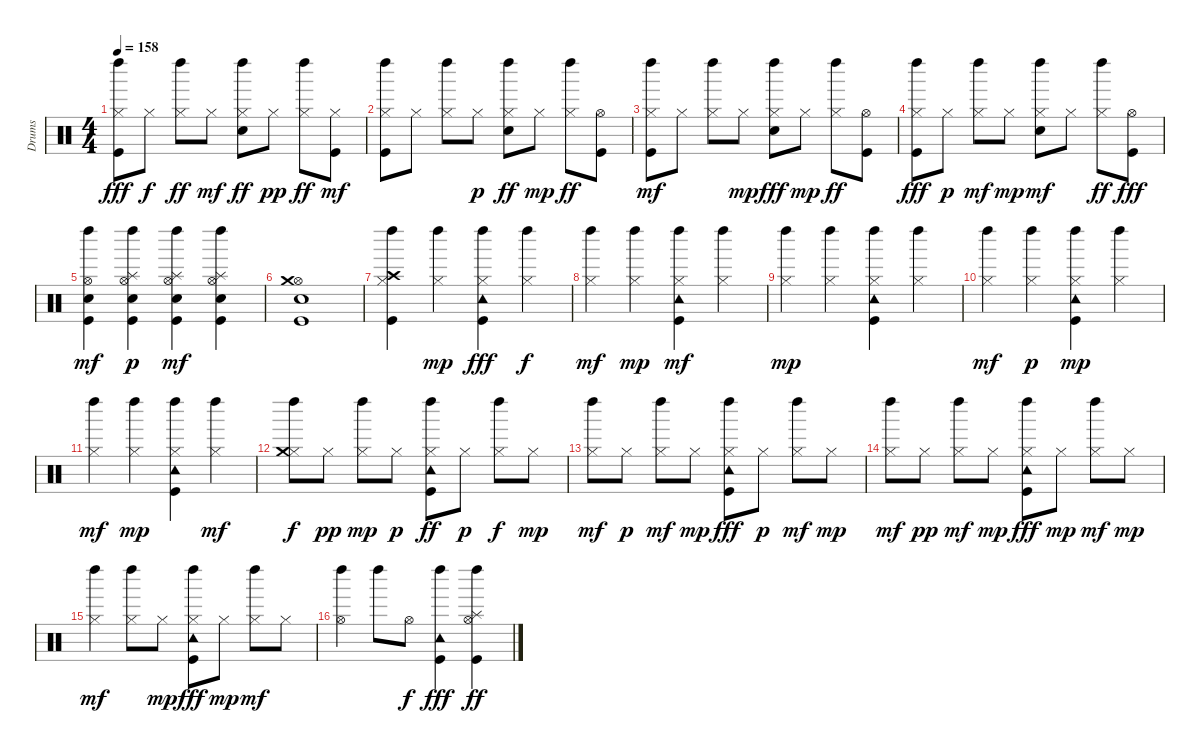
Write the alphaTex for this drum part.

\track ("Drums" "Drums") {instrument percussion}
\staff {score}
\articulation defaults
\ts (4 4)
\tempo 158
\clef neutral
\ks c
("Hi-Hat (closed)" "Left Maraca (hit)" "Kick (hit)").8{dy fff} "Hi-Hat (closed)".8{dy f} ("Left Maraca (hit)" "Hi-Hat (closed)").8{dy ff} "Hi-Hat (closed)".8{dy mf} ("Electric Snare (hit)" "Left Maraca (hit)" "Hi-Hat (closed)").8{dy ff} "Hi-Hat (closed)".8{dy pp} ("Left Maraca (hit)" "Hi-Hat (closed)").8{dy ff} ("Kick (hit)" "Hi-Hat (closed)").8{dy mf} |
("Kick (hit)" "Hi-Hat (closed)" "Left Maraca (hit)").8 "Hi-Hat (closed)".8 ("Hi-Hat (closed)" "Left Maraca (hit)").8 "Hi-Hat (closed)".8{dy p} ("Electric Snare (hit)" "Hi-Hat (closed)" "Left Maraca (hit)").8{dy ff} "Hi-Hat (closed)".8{dy mp} ("Left Maraca (hit)" "Hi-Hat (closed)").8{dy ff} ("Hi-Hat (open)" "Kick (hit)").8 |
("Hi-Hat (closed)" "Kick (hit)" "Left Maraca (hit)").8{dy mf} "Hi-Hat (closed)".8 ("Hi-Hat (closed)" "Left Maraca (hit)").8 "Hi-Hat (closed)".8{dy mp} ("Hi-Hat (closed)" "Left Maraca (hit)" "Electric Snare (hit)").8{dy fff} "Hi-Hat (closed)".8{dy mp} ("Left Maraca (hit)" "Hi-Hat (closed)").8{dy ff} ("Hi-Hat (open)" "Kick (hit)").8 |
("Hi-Hat (closed)" "Left Maraca (hit)" "Kick (hit)").8{dy fff} "Hi-Hat (closed)".8{dy p} ("Hi-Hat (closed)" "Left Maraca (hit)").8{dy mf} "Hi-Hat (closed)".8{dy mp} ("Hi-Hat (closed)" "Electric Snare (hit)" "Left Maraca (hit)").8{dy mf} "Hi-Hat (closed)".8 ("Hi-Hat (closed)" "Left Maraca (hit)").8{dy ff} ("Hi-Hat (open)" "Kick (hit)").8{dy fff} |
("Electric Snare (hit)" "Hi-Hat (open)" "Kick (hit)" "Left Maraca (hit)").4{dy mf} ("Hi-Hat (open)" "Left Maraca (hit)" "Kick (hit)" "Electric Snare (hit)" "Splash (hit)").4{dy p} ("Electric Snare (hit)" "Kick (hit)" "Hi-Hat (open)" "Splash (hit)" "Left Maraca (hit)").4{dy mf} ("Electric Snare (hit)" "Kick (hit)" "Splash (hit)" "Hi-Hat (open)" "Left Maraca (hit)").4 |
("Electric Snare (hit)" "Kick (hit)" "Hi-Hat (open)" "Crash medium (hit)").1 |
("Left Maraca (hit)" "Kick (hit)" "Hi-Hat (closed)" "Crash high (hit)").4 ("Hi-Hat (closed)" "Left Maraca (hit)").4{dy mp} ("Kick (hit)" "Hi-Hat (closed)" "Tambourine (hit)" "Left Maraca (hit)").4{dy fff} ("Left Maraca (hit)" "Hi-Hat (closed)").4{dy f} |
("Hi-Hat (closed)" "Left Maraca (hit)").4{dy mf} ("Hi-Hat (closed)" "Left Maraca (hit)").4{dy mp} ("Kick (hit)" "Tambourine (hit)" "Hi-Hat (closed)" "Left Maraca (hit)").4{dy mf} ("Hi-Hat (closed)" "Left Maraca (hit)").4 |
("Hi-Hat (closed)" "Left Maraca (hit)").4{dy mp} ("Left Maraca (hit)" "Hi-Hat (closed)").4 ("Kick (hit)" "Tambourine (hit)" "Hi-Hat (closed)" "Left Maraca (hit)").4 ("Hi-Hat (closed)" "Left Maraca (hit)").4 |
("Hi-Hat (closed)" "Left Maraca (hit)").4{dy mf} ("Hi-Hat (closed)" "Left Maraca (hit)").4{dy p} ("Tambourine (hit)" "Kick (hit)" "Hi-Hat (closed)" "Left Maraca (hit)").4{dy mp} ("Hi-Hat (closed)" "Left Maraca (hit)").4 |
("Hi-Hat (closed)" "Left Maraca (hit)").4{dy mf} ("Hi-Hat (closed)" "Left Maraca (hit)").4{dy mp} ("Kick (hit)" "Hi-Hat (closed)" "Tambourine (hit)" "Left Maraca (hit)").4 ("Hi-Hat (closed)" "Left Maraca (hit)").4{dy mf} |
("Hi-Hat (closed)" "Crash medium (hit)" "Left Maraca (hit)").8{dy f} "Hi-Hat (closed)".8{dy pp} ("Left Maraca (hit)" "Hi-Hat (closed)").8{dy mp} "Hi-Hat (closed)".8{dy p} ("Left Maraca (hit)" "Tambourine (hit)" "Kick (hit)" "Hi-Hat (closed)").8{dy ff} "Hi-Hat (closed)".8{dy p} ("Hi-Hat (closed)" "Left Maraca (hit)").8{dy f} "Hi-Hat (closed)".8{dy mp} |
("Left Maraca (hit)" "Hi-Hat (closed)").8{dy mf} "Hi-Hat (closed)".8{dy p} ("Hi-Hat (closed)" "Left Maraca (hit)").8{dy mf} "Hi-Hat (closed)".8{dy mp} ("Kick (hit)" "Left Maraca (hit)" "Tambourine (hit)" "Hi-Hat (closed)").8{dy fff} "Hi-Hat (closed)".8{dy p} ("Left Maraca (hit)" "Hi-Hat (closed)").8{dy mf} "Hi-Hat (closed)".8{dy mp} |
("Left Maraca (hit)" "Hi-Hat (closed)").8{dy mf} "Hi-Hat (closed)".8{dy pp} ("Left Maraca (hit)" "Hi-Hat (closed)").8{dy mf} "Hi-Hat (closed)".8{dy mp} ("Kick (hit)" "Left Maraca (hit)" "Hi-Hat (closed)" "Tambourine (hit)").8{dy fff} "Hi-Hat (closed)".8{dy mp} ("Hi-Hat (closed)" "Left Maraca (hit)").8{dy mf} "Hi-Hat (closed)".8{dy mp} |
("Left Maraca (hit)" "Hi-Hat (closed)").4{dy mf} ("Left Maraca (hit)" "Hi-Hat (closed)").8 "Hi-Hat (closed)".8{dy mp} ("Kick (hit)" "Left Maraca (hit)" "Hi-Hat (closed)" "Tambourine (hit)").8{dy fff} "Hi-Hat (closed)".8{dy mp} ("Left Maraca (hit)" "Hi-Hat (closed)").8{dy mf} "Hi-Hat (closed)".8 |
("Hi-Hat (open)" "Left Maraca (hit)").4 "Left Maraca (hit)".8 "Hi-Hat (open)".8{dy f} ("Left Maraca (hit)" "Tambourine (hit)" "Kick (hit)").4{dy fff} ("Kick (hit)" "Splash (hit)" "Hi-Hat (open)" "Left Maraca (hit)").4{dy ff}
